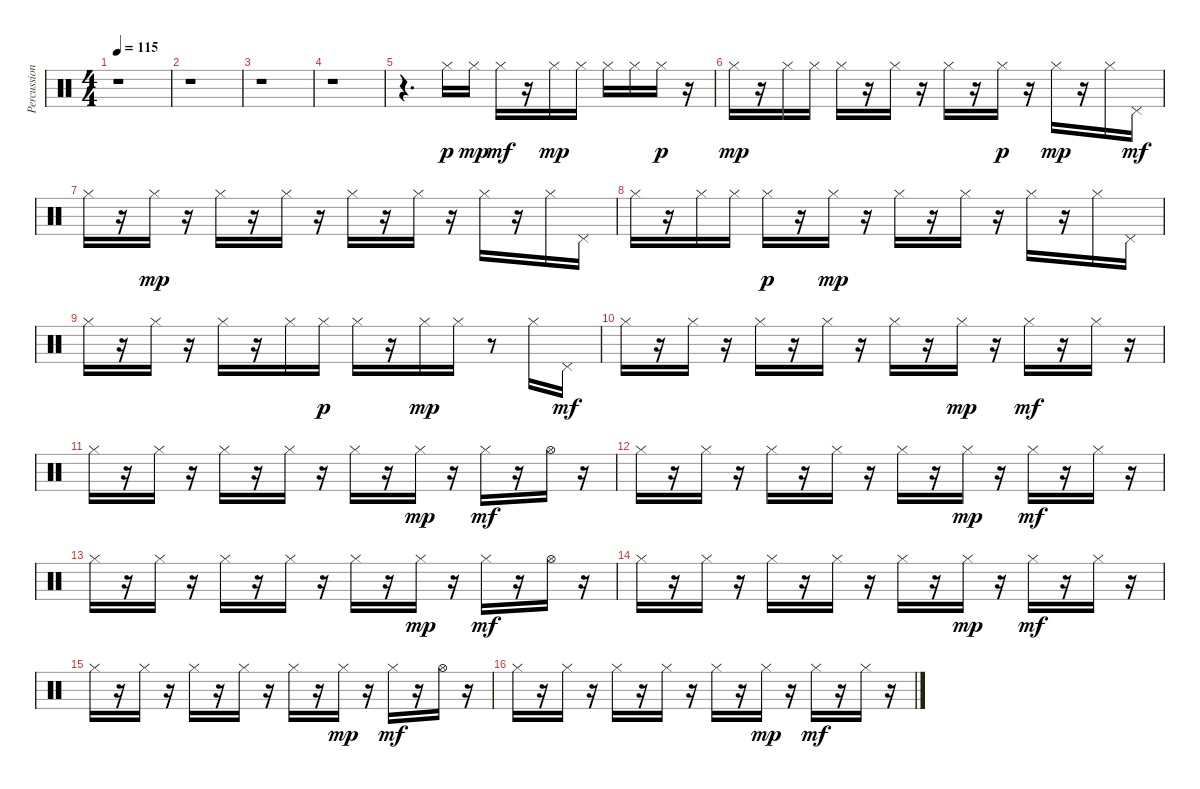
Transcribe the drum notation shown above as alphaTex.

\track ("Percussion" "Percussion") {instrument percussion}
\staff {score}
\articulation defaults
\ts (4 4)
\tempo 115
\clef neutral
\ks c
r.1{dy p} |
r.1 |
r.1 |
r.1 |
r.4{d} "Hi-Hat (closed)".16 "Hi-Hat (closed)".16{dy mp} "Hi-Hat (closed)".16{dy mf} r.16 "Hi-Hat (closed)".16{dy mp} "Hi-Hat (closed)".16 "Hi-Hat (closed)".16 "Hi-Hat (closed)".16 "Hi-Hat (closed)".16{dy p} r.16 |
"Hi-Hat (closed)".16{dy mp} r.16 "Hi-Hat (closed)".16 "Hi-Hat (closed)".16 "Hi-Hat (closed)".16 r.16 "Hi-Hat (closed)".16 r.16 "Hi-Hat (closed)".16 r.16 "Hi-Hat (closed)".16{dy p} r.16 "Hi-Hat (closed)".16{dy mp} r.16 "Hi-Hat (closed)".16 "Pedal Hi-Hat (hit)".16{dy mf} |
"Hi-Hat (closed)".16 r.16 "Hi-Hat (closed)".16{dy mp} r.16 "Hi-Hat (closed)".16 r.16 "Hi-Hat (closed)".16 r.16 "Hi-Hat (closed)".16 r.16 "Hi-Hat (closed)".16 r.16 "Hi-Hat (closed)".16 r.16 "Hi-Hat (closed)".16 "Pedal Hi-Hat (hit)".16 |
"Hi-Hat (closed)".16 r.16 "Hi-Hat (closed)".16 "Hi-Hat (closed)".16 "Hi-Hat (closed)".16{dy p} r.16 "Hi-Hat (closed)".16{dy mp} r.16 "Hi-Hat (closed)".16 r.16 "Hi-Hat (closed)".16 r.16 "Hi-Hat (closed)".16 r.16 "Hi-Hat (closed)".16 "Pedal Hi-Hat (hit)".16 |
"Hi-Hat (closed)".16 r.16 "Hi-Hat (closed)".16 r.16 "Hi-Hat (closed)".16 r.16 "Hi-Hat (closed)".16 "Hi-Hat (closed)".16{dy p} "Hi-Hat (closed)".16 r.16 "Hi-Hat (closed)".16{dy mp} "Hi-Hat (closed)".16 r.8 "Hi-Hat (closed)".16 "Pedal Hi-Hat (hit)".16{dy mf} |
"Hi-Hat (closed)".16 r.16 "Hi-Hat (closed)".16 r.16 "Hi-Hat (closed)".16 r.16 "Hi-Hat (closed)".16 r.16 "Hi-Hat (closed)".16 r.16 "Hi-Hat (closed)".16{dy mp} r.16 "Hi-Hat (closed)".16{dy mf} r.16 "Hi-Hat (closed)".16 r.16 |
"Hi-Hat (closed)".16 r.16 "Hi-Hat (closed)".16 r.16 "Hi-Hat (closed)".16 r.16 "Hi-Hat (closed)".16 r.16 "Hi-Hat (closed)".16 r.16 "Hi-Hat (closed)".16{dy mp} r.16 "Hi-Hat (closed)".16{dy mf} r.16 "Hi-Hat (open)".16 r.16 |
"Hi-Hat (closed)".16 r.16 "Hi-Hat (closed)".16 r.16 "Hi-Hat (closed)".16 r.16 "Hi-Hat (closed)".16 r.16 "Hi-Hat (closed)".16 r.16 "Hi-Hat (closed)".16{dy mp} r.16 "Hi-Hat (closed)".16{dy mf} r.16 "Hi-Hat (closed)".16 r.16 |
"Hi-Hat (closed)".16 r.16 "Hi-Hat (closed)".16 r.16 "Hi-Hat (closed)".16 r.16 "Hi-Hat (closed)".16 r.16 "Hi-Hat (closed)".16 r.16 "Hi-Hat (closed)".16{dy mp} r.16 "Hi-Hat (closed)".16{dy mf} r.16 "Hi-Hat (open)".16 r.16 |
"Hi-Hat (closed)".16 r.16 "Hi-Hat (closed)".16 r.16 "Hi-Hat (closed)".16 r.16 "Hi-Hat (closed)".16 r.16 "Hi-Hat (closed)".16 r.16 "Hi-Hat (closed)".16{dy mp} r.16 "Hi-Hat (closed)".16{dy mf} r.16 "Hi-Hat (closed)".16 r.16 |
"Hi-Hat (closed)".16 r.16 "Hi-Hat (closed)".16 r.16 "Hi-Hat (closed)".16 r.16 "Hi-Hat (closed)".16 r.16 "Hi-Hat (closed)".16 r.16 "Hi-Hat (closed)".16{dy mp} r.16 "Hi-Hat (closed)".16{dy mf} r.16 "Hi-Hat (open)".16 r.16 |
"Hi-Hat (closed)".16 r.16 "Hi-Hat (closed)".16 r.16 "Hi-Hat (closed)".16 r.16 "Hi-Hat (closed)".16 r.16 "Hi-Hat (closed)".16 r.16 "Hi-Hat (closed)".16{dy mp} r.16 "Hi-Hat (closed)".16{dy mf} r.16 "Hi-Hat (closed)".16 r.16
